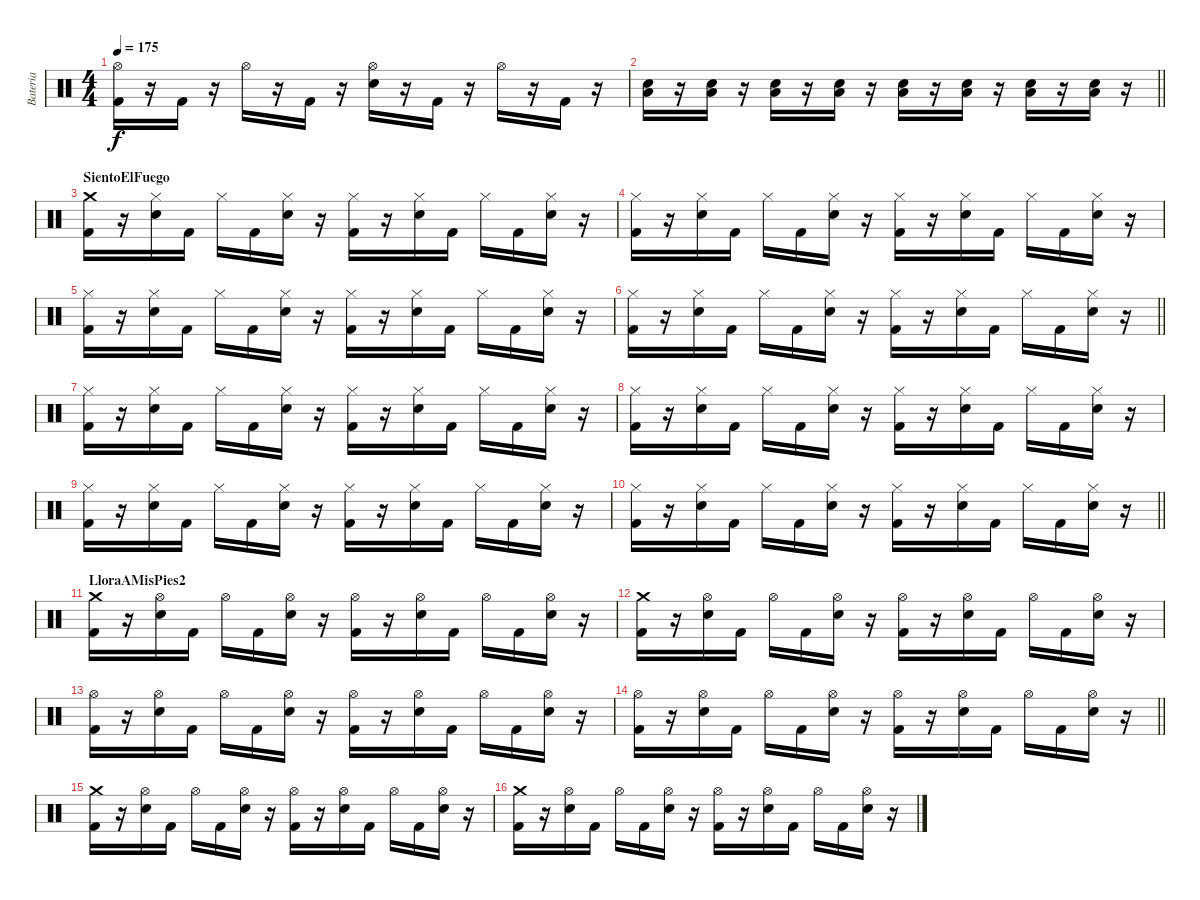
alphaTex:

\track ("Bateria" "Bateria") {instrument percussion}
\staff {score}
\articulation defaults
\ts (4 4)
\tempo 175
\clef neutral
\ks c
("Hi-Hat (open)" "Kick (hit) 2").16{dy f} r.16 "Kick (hit) 2".16 r.16 "Hi-Hat (open)".16 r.16 "Kick (hit) 2".16 r.16 ("Hi-Hat (open)" "Snare (hit) 2").16 r.16 "Kick (hit) 2".16 r.16 "Hi-Hat (open)".16 r.16 "Kick (hit) 2".16 r.16 |
\barLineRight lightlight
("Snare (hit) 2" "Low Floor Tom (hit)").16 r.16 ("Snare (hit) 2" "Low Floor Tom (hit)").16 r.16 ("Snare (hit) 2" "Low Floor Tom (hit)").16 r.16 ("Snare (hit) 2" "Low Floor Tom (hit)").16 r.16 ("Snare (hit) 2" "Low Floor Tom (hit)").16 r.16 ("Snare (hit) 2" "Low Floor Tom (hit)").16 r.16 ("Snare (hit) 2" "Low Floor Tom (hit)").16 r.16 ("Snare (hit) 2" "Low Floor Tom (hit)").16 r.16 |
\section ("" "SientoElFuego")
("Crash medium (hit)" "Kick (hit) 2").16 r.16 ("Hi-Hat (closed)" "Snare (hit) 2").16 "Kick (hit) 2".16 "Hi-Hat (closed)".16 "Kick (hit) 2".16 ("Hi-Hat (closed)" "Snare (hit) 2").16 r.16 ("Hi-Hat (closed)" "Kick (hit) 2").16 r.16 ("Hi-Hat (closed)" "Snare (hit) 2").16 "Kick (hit) 2".16 "Hi-Hat (closed)".16 "Kick (hit) 2".16 ("Hi-Hat (closed)" "Snare (hit) 2").16 r.16 |
("Hi-Hat (closed)" "Kick (hit) 2").16 r.16 ("Hi-Hat (closed)" "Snare (hit) 2").16 "Kick (hit) 2".16 "Hi-Hat (closed)".16 "Kick (hit) 2".16 ("Hi-Hat (closed)" "Snare (hit) 2").16 r.16 ("Hi-Hat (closed)" "Kick (hit) 2").16 r.16 ("Hi-Hat (closed)" "Snare (hit) 2").16 "Kick (hit) 2".16 "Hi-Hat (closed)".16 "Kick (hit) 2".16 ("Hi-Hat (closed)" "Snare (hit) 2").16 r.16 |
("Hi-Hat (closed)" "Kick (hit) 2").16 r.16 ("Hi-Hat (closed)" "Snare (hit) 2").16 "Kick (hit) 2".16 "Hi-Hat (closed)".16 "Kick (hit) 2".16 ("Hi-Hat (closed)" "Snare (hit) 2").16 r.16 ("Hi-Hat (closed)" "Kick (hit) 2").16 r.16 ("Hi-Hat (closed)" "Snare (hit) 2").16 "Kick (hit) 2".16 "Hi-Hat (closed)".16 "Kick (hit) 2".16 ("Hi-Hat (closed)" "Snare (hit) 2").16 r.16 |
\barLineRight lightlight
("Hi-Hat (closed)" "Kick (hit) 2").16 r.16 ("Hi-Hat (closed)" "Snare (hit) 2").16 "Kick (hit) 2".16 "Hi-Hat (closed)".16 "Kick (hit) 2".16 ("Hi-Hat (closed)" "Snare (hit) 2").16 r.16 ("Hi-Hat (closed)" "Kick (hit) 2").16 r.16 ("Hi-Hat (closed)" "Snare (hit) 2").16 "Kick (hit) 2".16 "Hi-Hat (closed)".16 "Kick (hit) 2".16 ("Hi-Hat (closed)" "Snare (hit) 2").16 r.16 |
("Hi-Hat (closed)" "Kick (hit) 2").16 r.16 ("Hi-Hat (closed)" "Snare (hit) 2").16 "Kick (hit) 2".16 "Hi-Hat (closed)".16 "Kick (hit) 2".16 ("Hi-Hat (closed)" "Snare (hit) 2").16 r.16 ("Hi-Hat (closed)" "Kick (hit) 2").16 r.16 ("Hi-Hat (closed)" "Snare (hit) 2").16 "Kick (hit) 2".16 "Hi-Hat (closed)".16 "Kick (hit) 2".16 ("Hi-Hat (closed)" "Snare (hit) 2").16 r.16 |
("Hi-Hat (closed)" "Kick (hit) 2").16 r.16 ("Hi-Hat (closed)" "Snare (hit) 2").16 "Kick (hit) 2".16 "Hi-Hat (closed)".16 "Kick (hit) 2".16 ("Hi-Hat (closed)" "Snare (hit) 2").16 r.16 ("Hi-Hat (closed)" "Kick (hit) 2").16 r.16 ("Hi-Hat (closed)" "Snare (hit) 2").16 "Kick (hit) 2".16 "Hi-Hat (closed)".16 "Kick (hit) 2".16 ("Hi-Hat (closed)" "Snare (hit) 2").16 r.16 |
("Hi-Hat (closed)" "Kick (hit) 2").16 r.16 ("Hi-Hat (closed)" "Snare (hit) 2").16 "Kick (hit) 2".16 "Hi-Hat (closed)".16 "Kick (hit) 2".16 ("Hi-Hat (closed)" "Snare (hit) 2").16 r.16 ("Hi-Hat (closed)" "Kick (hit) 2").16 r.16 ("Hi-Hat (closed)" "Snare (hit) 2").16 "Kick (hit) 2".16 "Hi-Hat (closed)".16 "Kick (hit) 2".16 ("Hi-Hat (closed)" "Snare (hit) 2").16 r.16 |
\barLineRight lightlight
("Hi-Hat (closed)" "Kick (hit) 2").16 r.16 ("Hi-Hat (closed)" "Snare (hit) 2").16 "Kick (hit) 2".16 "Hi-Hat (closed)".16 "Kick (hit) 2".16 ("Hi-Hat (closed)" "Snare (hit) 2").16 r.16 ("Hi-Hat (closed)" "Kick (hit) 2").16 r.16 ("Hi-Hat (closed)" "Snare (hit) 2").16 "Kick (hit) 2".16 "Hi-Hat (closed)".16 "Kick (hit) 2".16 ("Hi-Hat (closed)" "Snare (hit) 2").16 r.16 |
\section ("" "LloraAMisPies2")
("Crash medium (hit)" "Kick (hit) 2").16 r.16 ("Hi-Hat (open)" "Snare (hit) 2").16 "Kick (hit) 2".16 "Hi-Hat (open)".16 "Kick (hit) 2".16 ("Hi-Hat (open)" "Snare (hit) 2").16 r.16 ("Hi-Hat (open)" "Kick (hit) 2").16 r.16 ("Hi-Hat (open)" "Snare (hit) 2").16 "Kick (hit) 2".16 "Hi-Hat (open)".16 "Kick (hit) 2".16 ("Hi-Hat (open)" "Snare (hit) 2").16 r.16 |
("Crash medium (hit)" "Kick (hit) 2").16 r.16 ("Hi-Hat (open)" "Snare (hit) 2").16 "Kick (hit) 2".16 "Hi-Hat (open)".16 "Kick (hit) 2".16 ("Hi-Hat (open)" "Snare (hit) 2").16 r.16 ("Hi-Hat (open)" "Kick (hit) 2").16 r.16 ("Hi-Hat (open)" "Snare (hit) 2").16 "Kick (hit) 2".16 "Hi-Hat (open)".16 "Kick (hit) 2".16 ("Hi-Hat (open)" "Snare (hit) 2").16 r.16 |
("Hi-Hat (open)" "Kick (hit) 2").16 r.16 ("Hi-Hat (open)" "Snare (hit) 2").16 "Kick (hit) 2".16 "Hi-Hat (open)".16 "Kick (hit) 2".16 ("Hi-Hat (open)" "Snare (hit) 2").16 r.16 ("Hi-Hat (open)" "Kick (hit) 2").16 r.16 ("Hi-Hat (open)" "Snare (hit) 2").16 "Kick (hit) 2".16 "Hi-Hat (open)".16 "Kick (hit) 2".16 ("Hi-Hat (open)" "Snare (hit) 2").16 r.16 |
\barLineRight lightlight
("Hi-Hat (open)" "Kick (hit) 2").16 r.16 ("Hi-Hat (open)" "Snare (hit) 2").16 "Kick (hit) 2".16 "Hi-Hat (open)".16 "Kick (hit) 2".16 ("Hi-Hat (open)" "Snare (hit) 2").16 r.16 ("Hi-Hat (open)" "Kick (hit) 2").16 r.16 ("Hi-Hat (open)" "Snare (hit) 2").16 "Kick (hit) 2".16 "Hi-Hat (open)".16 "Kick (hit) 2".16 ("Hi-Hat (open)" "Snare (hit) 2").16 r.16 |
("Crash medium (hit)" "Kick (hit) 2").16 r.16 ("Hi-Hat (open)" "Snare (hit) 2").16 "Kick (hit) 2".16 "Hi-Hat (open)".16 "Kick (hit) 2".16 ("Hi-Hat (open)" "Snare (hit) 2").16 r.16 ("Hi-Hat (open)" "Kick (hit) 2").16 r.16 ("Hi-Hat (open)" "Snare (hit) 2").16 "Kick (hit) 2".16 "Hi-Hat (open)".16 "Kick (hit) 2".16 ("Hi-Hat (open)" "Snare (hit) 2").16 r.16 |
("Crash medium (hit)" "Kick (hit) 2").16 r.16 ("Hi-Hat (open)" "Snare (hit) 2").16 "Kick (hit) 2".16 "Hi-Hat (open)".16 "Kick (hit) 2".16 ("Hi-Hat (open)" "Snare (hit) 2").16 r.16 ("Hi-Hat (open)" "Kick (hit) 2").16 r.16 ("Hi-Hat (open)" "Snare (hit) 2").16 "Kick (hit) 2".16 "Hi-Hat (open)".16 "Kick (hit) 2".16 ("Hi-Hat (open)" "Snare (hit) 2").16 r.16
